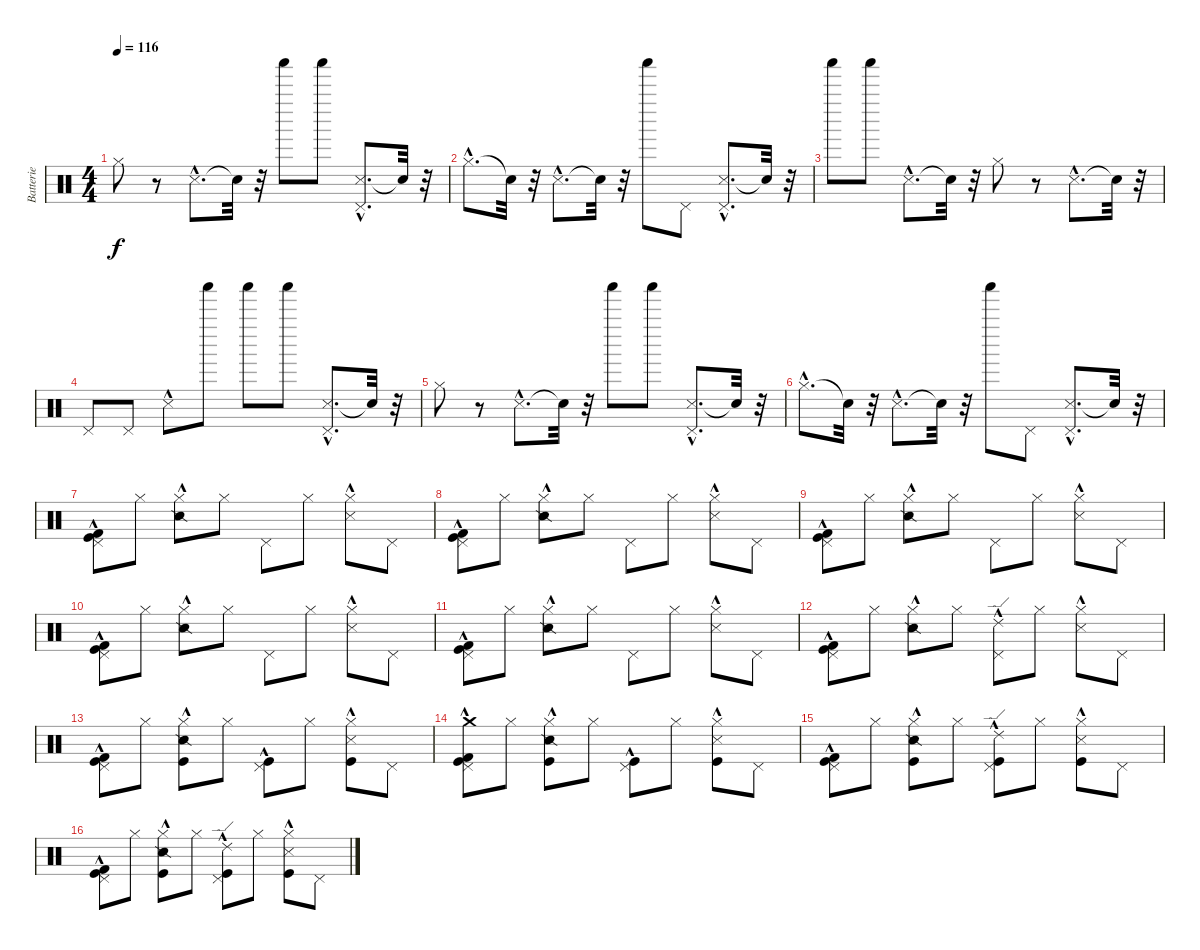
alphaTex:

\track ("Batterie" "Batterie") {instrument percussion}
\staff {score}
\articulation defaults
\ts (4 4)
\tempo 116
\clef neutral
\ks c "Hi-Hat (closed)".8{dy f}
r.8 "Snare (side stick) 3"{hac}.8{d} "Snare (hit)"{t}.32 r.32 "Shaker (hit)".8 "Shaker (hit)".8 ("Snare (side stick) 3"{hac} "Pedal Hi-Hat (hit)").8{d} "Snare (hit)"{t}.32 r.32 |
"Hi-Hat (closed)"{hac}.8{d} "Snare (hit)"{t}.32 r.32 "Snare (side stick) 3"{hac}.8{d} "Snare (hit)"{t}.32 r.32 "Shaker (hit)".8 "Pedal Hi-Hat (hit)".8 ("Snare (side stick) 3"{hac} "Pedal Hi-Hat (hit)").8{d} "Snare (hit)"{t}.32 r.32 |
"Shaker (hit)".8 "Shaker (hit)".8 "Snare (side stick) 3"{hac}.8{d} "Snare (hit)"{t}.32 r.32 "Hi-Hat (closed)".8 r.8 "Snare (side stick) 3"{hac}.8{d} "Snare (hit)"{t}.32 r.32 |
"Pedal Hi-Hat (hit)".8 "Pedal Hi-Hat (hit)".8 "Snare (side stick) 3"{hac}.8 "Shaker (hit)".8 "Shaker (hit)".8 "Shaker (hit)".8 ("Snare (side stick) 3"{hac} "Pedal Hi-Hat (hit)").8{d} "Snare (hit)"{t}.32 r.32 |
"Hi-Hat (closed)".8 r.8 "Snare (side stick) 3"{hac}.8{d} "Snare (hit)"{t}.32 r.32 "Shaker (hit)".8 "Shaker (hit)".8 ("Snare (side stick) 3"{hac} "Pedal Hi-Hat (hit)").8{d} "Snare (hit)"{t}.32 r.32 |
"Hi-Hat (closed)"{hac}.8{d} "Snare (hit)"{t}.32 r.32 "Snare (side stick) 3"{hac}.8{d} "Snare (hit)"{t}.32 r.32 "Shaker (hit)".8 "Pedal Hi-Hat (hit)".8 ("Snare (side stick) 3"{hac} "Pedal Hi-Hat (hit)").8{d} "Snare (hit)"{t}.32 r.32 |
("Kick (hit)"{hac} "Kick (hit) 2"{hac} "Pedal Hi-Hat (hit)").8 "Hi-Hat (closed)".8 ("Snare (side stick) 2"{hac} "Hi-Hat (closed)").8 "Hi-Hat (closed)".8 "Pedal Hi-Hat (hit)".8 "Hi-Hat (closed)".8 ("Snare (side stick) 3"{hac} "Hi-Hat (closed)").8 "Pedal Hi-Hat (hit)".8 |
("Kick (hit)"{hac} "Kick (hit) 2"{hac} "Pedal Hi-Hat (hit)").8 "Hi-Hat (closed)".8 ("Snare (side stick) 2"{hac} "Hi-Hat (closed)").8 "Hi-Hat (closed)".8 "Pedal Hi-Hat (hit)".8 "Hi-Hat (closed)".8 ("Snare (side stick) 3"{hac} "Hi-Hat (closed)").8 "Pedal Hi-Hat (hit)".8 |
("Kick (hit)"{hac} "Kick (hit) 2"{hac} "Pedal Hi-Hat (hit)").8 "Hi-Hat (closed)".8 ("Snare (side stick) 2"{hac} "Hi-Hat (closed)").8 "Hi-Hat (closed)".8 "Pedal Hi-Hat (hit)".8 "Hi-Hat (closed)".8 ("Snare (side stick) 3"{hac} "Hi-Hat (closed)").8 "Pedal Hi-Hat (hit)".8 |
("Kick (hit)"{hac} "Kick (hit) 2"{hac} "Pedal Hi-Hat (hit)").8 "Hi-Hat (closed)".8 ("Snare (side stick) 2"{hac} "Hi-Hat (closed)").8 "Hi-Hat (closed)".8 "Pedal Hi-Hat (hit)".8 "Hi-Hat (closed)".8 ("Snare (side stick) 3"{hac} "Hi-Hat (closed)").8 "Pedal Hi-Hat (hit)".8 |
("Kick (hit)"{hac} "Kick (hit) 2"{hac} "Pedal Hi-Hat (hit)").8 "Hi-Hat (closed)".8 ("Snare (side stick) 2"{hac} "Hi-Hat (closed)").8 "Hi-Hat (closed)".8 "Pedal Hi-Hat (hit)".8 "Hi-Hat (closed)".8 ("Snare (side stick) 3"{hac} "Hi-Hat (closed)").8 "Pedal Hi-Hat (hit)".8 |
("Kick (hit)"{hac} "Kick (hit) 2"{hac} "Pedal Hi-Hat (hit)").8 "Hi-Hat (closed)".8 ("Snare (side stick) 2"{hac} "Hi-Hat (closed)").8 "Hi-Hat (closed)".8 ("Pedal Hi-Hat (hit)" "Ride (edge) 2"{hac}).8 "Hi-Hat (closed)".8 ("Snare (side stick) 3"{hac} "Hi-Hat (closed)").8 "Pedal Hi-Hat (hit)".8 |
("Kick (hit)"{hac} "Kick (hit) 2"{hac} "Pedal Hi-Hat (hit)").8 "Hi-Hat (closed)".8 ("Snare (side stick) 2"{hac} "Kick (hit)"{hac} "Hi-Hat (closed)").8 "Hi-Hat (closed)".8 ("Kick (hit)"{hac} "Pedal Hi-Hat (hit)").8 "Hi-Hat (closed)".8 ("Kick (hit)"{hac} "Snare (side stick) 3"{hac} "Hi-Hat (closed)").8 "Pedal Hi-Hat (hit)".8 |
("Kick (hit)"{hac} "Kick (hit) 2"{hac} "Pedal Hi-Hat (hit)" "Crash medium (hit)"{hac}).8 "Hi-Hat (closed)".8 ("Snare (side stick) 2"{hac} "Kick (hit)"{hac} "Hi-Hat (closed)").8 "Hi-Hat (closed)".8 ("Kick (hit)"{hac} "Pedal Hi-Hat (hit)").8 "Hi-Hat (closed)".8 ("Kick (hit)"{hac} "Snare (side stick) 3"{hac} "Hi-Hat (closed)").8 "Pedal Hi-Hat (hit)".8 |
("Kick (hit)"{hac} "Kick (hit) 2"{hac} "Pedal Hi-Hat (hit)").8 "Hi-Hat (closed)".8 ("Snare (side stick) 2"{hac} "Kick (hit)"{hac} "Hi-Hat (closed)").8 "Hi-Hat (closed)".8 ("Kick (hit)"{hac} "Pedal Hi-Hat (hit)" "Ride (edge) 2"{hac}).8 "Hi-Hat (closed)".8 ("Kick (hit)"{hac} "Snare (side stick) 3"{hac} "Hi-Hat (closed)").8 "Pedal Hi-Hat (hit)".8 |
("Kick (hit)"{hac} "Kick (hit) 2"{hac} "Pedal Hi-Hat (hit)").8 "Hi-Hat (closed)".8 ("Snare (side stick) 2"{hac} "Kick (hit)"{hac} "Hi-Hat (closed)").8 "Hi-Hat (closed)".8 ("Kick (hit)"{hac} "Pedal Hi-Hat (hit)" "Ride (edge) 2"{hac}).8 "Hi-Hat (closed)".8 ("Kick (hit)"{hac} "Snare (side stick) 3"{hac} "Hi-Hat (closed)").8 "Pedal Hi-Hat (hit)".8
